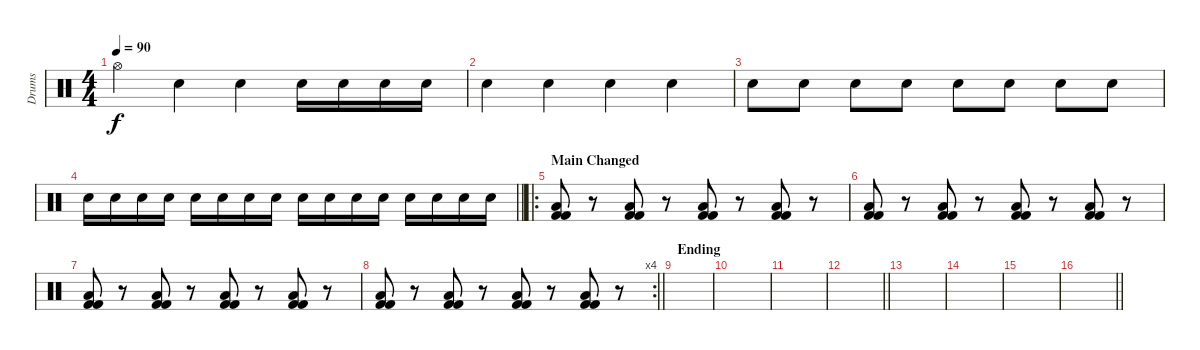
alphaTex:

\track ("Drums" "Drums") {instrument percussion}
\staff {score}
\articulation defaults
\ts (4 4)
\tempo 90
\clef neutral
\ks c "Hi-Hat (open)".4{dy f} "Snare (hit) 2".4 "Snare (hit) 2".4 "Snare (hit) 2".16 "Snare (hit) 2".16 "Snare (hit) 2".16 "Snare (hit) 2".16
|
"Snare (hit) 2".4 "Snare (hit) 2".4 "Snare (hit) 2".4 "Snare (hit) 2".4 |
"Snare (hit) 2".8 "Snare (hit) 2".8 "Snare (hit) 2".8 "Snare (hit) 2".8 "Snare (hit) 2".8 "Snare (hit) 2".8 "Snare (hit) 2".8 "Snare (hit) 2".8 |
\barLineRight lightlight "Snare (hit) 2".16 "Snare (hit) 2".16 "Snare (hit) 2".16 "Snare (hit) 2".16 "Snare (hit) 2".16 "Snare (hit) 2".16 "Snare (hit) 2".16 "Snare (hit) 2".16 "Snare (hit) 2".16 "Snare (hit) 2".16 "Snare (hit) 2".16 "Snare (hit) 2".16 "Snare (hit) 2".16 "Snare (hit) 2".16 "Snare (hit) 2".16 "Snare (hit) 2".16
|
\ro
\section ("" "Main Changed")
("Kick (hit) 2" "Kick (hit) 2" "Low Floor Tom (hit)").8 r.8 ("Kick (hit) 2" "Kick (hit) 2" "Low Floor Tom (hit)").8 r.8 ("Kick (hit) 2" "Kick (hit) 2" "Low Floor Tom (hit)").8 r.8 ("Kick (hit) 2" "Kick (hit) 2" "Low Floor Tom (hit)").8 r.8 |
("Kick (hit) 2" "Kick (hit) 2" "Low Floor Tom (hit)").8 r.8 ("Kick (hit) 2" "Kick (hit) 2" "Low Floor Tom (hit)").8 r.8 ("Kick (hit) 2" "Kick (hit) 2" "Low Floor Tom (hit)").8 r.8 ("Kick (hit) 2" "Kick (hit) 2" "Low Floor Tom (hit)").8 r.8 |
("Kick (hit) 2" "Kick (hit) 2" "Low Floor Tom (hit)").8 r.8 ("Kick (hit) 2" "Kick (hit) 2" "Low Floor Tom (hit)").8 r.8 ("Kick (hit) 2" "Kick (hit) 2" "Low Floor Tom (hit)").8 r.8 ("Kick (hit) 2" "Kick (hit) 2" "Low Floor Tom (hit)").8 r.8 |
\rc 4
\barLineRight lightlight
("Kick (hit) 2" "Kick (hit) 2" "Low Floor Tom (hit)").8 r.8 ("Kick (hit) 2" "Kick (hit) 2" "Low Floor Tom (hit)").8 r.8 ("Kick (hit) 2" "Kick (hit) 2" "Low Floor Tom (hit)").8 r.8 ("Kick (hit) 2" "Kick (hit) 2" "Low Floor Tom (hit)").8 r.8 |
\section ("" "Ending")
|
|
|
\barLineRight lightlight
|
|
|
|
\barLineRight lightlight
